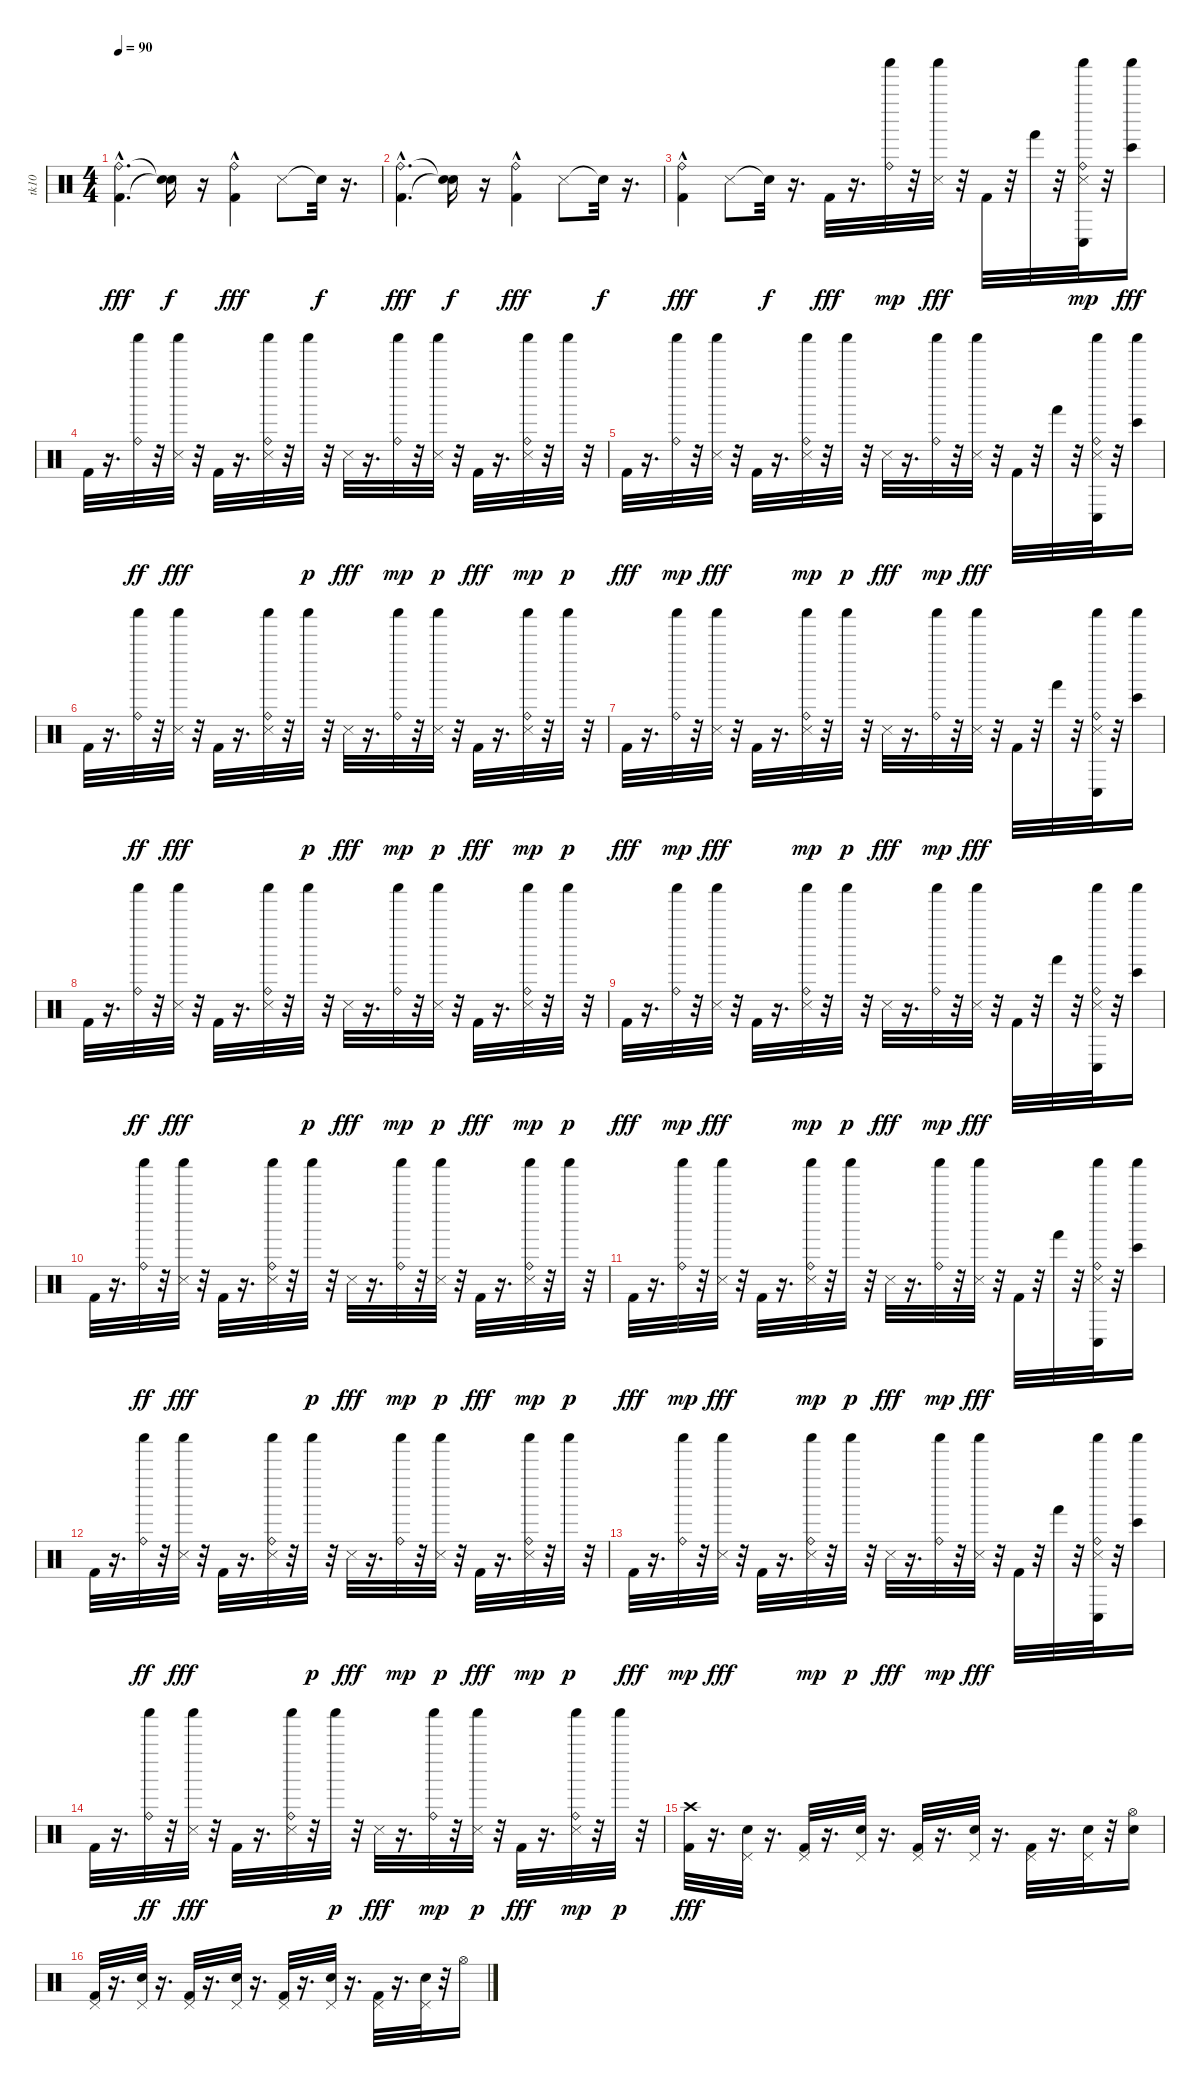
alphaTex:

\track ("tk10" "tk10") {instrument percussion}
\staff {score}
\articulation defaults
\ts (4 4)
\tempo 90
\clef neutral
\ks c
("Kick (hit) 2"{hac} "Ride (bell)"{hac}).4{d dy fff} ("Snare (hit)"{t} "Snare (hit)"{t}).16{dy f} r.16 ("Ride (bell)"{hac} "Kick (hit) 2").4{dy fff} "Snare (side stick) 3".8 "Snare (hit)"{t}.32{dy f} r.16{d} |
("Kick (hit) 2"{hac} "Ride (bell)"{hac}).4{d dy fff} ("Snare (hit)"{t} "Snare (hit)"{t}).16{dy f} r.16 ("Ride (bell)"{hac} "Kick (hit) 2").4{dy fff} "Snare (side stick) 3".8 "Snare (hit)"{t}.32{dy f} r.16{d} |
("Kick (hit) 2" "Ride (bell)"{hac}).4{dy fff} "Snare (side stick) 3".8 "Snare (hit)"{t}.32{dy f} r.16{d} "Kick (hit) 2".32{dy fff} r.16{d} ("Ride (bell)" "Shaker (hit)").32{dy mp} r.32 ("Shaker (hit)" "Snare (side stick) 3").32{dy fff} r.32 "Kick (hit) 2".32 r.32 "Hand (hit)".32 r.32 ("Ride (bell)" "Snare (side stick) 3" "Conga low (hit)" "Shaker (hit)").32{dy mp} r.32 ("Shaker (hit)" "Bongo High (hit)").16{dy fff} |
"Kick (hit) 2".32 r.16{d} ("Shaker (hit)" "Ride (bell)").32{dy ff} r.32 ("Shaker (hit)" "Snare (side stick) 3").32{dy fff} r.32 "Kick (hit) 2".32 r.16{d} ("Shaker (hit)" "Ride (bell)" "Snare (side stick) 3").32 r.32 "Shaker (hit)".32{dy p} r.32 "Snare (side stick) 3".32{dy fff} r.16{d} ("Ride (bell)" "Shaker (hit)").32{dy mp} r.32 ("Snare (side stick) 3" "Shaker (hit)").32{dy p} r.32 "Kick (hit) 2".32{dy fff} r.16{d} ("Ride (bell)" "Snare (side stick) 3" "Shaker (hit)").32{dy mp} r.32 "Shaker (hit)".32{dy p} r.32 |
"Kick (hit) 2".32{dy fff} r.16{d} ("Ride (bell)" "Shaker (hit)").32{dy mp} r.32 ("Shaker (hit)" "Snare (side stick) 3").32{dy fff} r.32 "Kick (hit) 2".32 r.16{d} ("Ride (bell)" "Snare (side stick) 3" "Shaker (hit)").32{dy mp} r.32 "Shaker (hit)".32{dy p} r.32 "Snare (side stick) 3".32{dy fff} r.16{d} ("Ride (bell)" "Shaker (hit)").32{dy mp} r.32 ("Shaker (hit)" "Snare (side stick) 3").32{dy fff} r.32 "Kick (hit) 2".32 r.32 "Hand (hit)".32 r.32 ("Shaker (hit)" "Ride (bell)" "Snare (side stick) 3" "Conga low (hit)").32 r.32 ("Shaker (hit)" "Bongo High (hit)").16 |
"Kick (hit) 2".32 r.16{d} ("Shaker (hit)" "Ride (bell)").32{dy ff} r.32 ("Shaker (hit)" "Snare (side stick) 3").32{dy fff} r.32 "Kick (hit) 2".32 r.16{d} ("Shaker (hit)" "Ride (bell)" "Snare (side stick) 3").32 r.32 "Shaker (hit)".32{dy p} r.32 "Snare (side stick) 3".32{dy fff} r.16{d} ("Ride (bell)" "Shaker (hit)").32{dy mp} r.32 ("Snare (side stick) 3" "Shaker (hit)").32{dy p} r.32 "Kick (hit) 2".32{dy fff} r.16{d} ("Ride (bell)" "Snare (side stick) 3" "Shaker (hit)").32{dy mp} r.32 "Shaker (hit)".32{dy p} r.32 |
"Kick (hit) 2".32{dy fff} r.16{d} ("Ride (bell)" "Shaker (hit)").32{dy mp} r.32 ("Shaker (hit)" "Snare (side stick) 3").32{dy fff} r.32 "Kick (hit) 2".32 r.16{d} ("Ride (bell)" "Snare (side stick) 3" "Shaker (hit)").32{dy mp} r.32 "Shaker (hit)".32{dy p} r.32 "Snare (side stick) 3".32{dy fff} r.16{d} ("Ride (bell)" "Shaker (hit)").32{dy mp} r.32 ("Shaker (hit)" "Snare (side stick) 3").32{dy fff} r.32 "Kick (hit) 2".32 r.32 "Hand (hit)".32 r.32 ("Shaker (hit)" "Ride (bell)" "Snare (side stick) 3" "Conga low (hit)").32 r.32 ("Shaker (hit)" "Bongo High (hit)").16 |
"Kick (hit) 2".32 r.16{d} ("Shaker (hit)" "Ride (bell)").32{dy ff} r.32 ("Shaker (hit)" "Snare (side stick) 3").32{dy fff} r.32 "Kick (hit) 2".32 r.16{d} ("Shaker (hit)" "Ride (bell)" "Snare (side stick) 3").32 r.32 "Shaker (hit)".32{dy p} r.32 "Snare (side stick) 3".32{dy fff} r.16{d} ("Ride (bell)" "Shaker (hit)").32{dy mp} r.32 ("Snare (side stick) 3" "Shaker (hit)").32{dy p} r.32 "Kick (hit) 2".32{dy fff} r.16{d} ("Ride (bell)" "Snare (side stick) 3" "Shaker (hit)").32{dy mp} r.32 "Shaker (hit)".32{dy p} r.32 |
"Kick (hit) 2".32{dy fff} r.16{d} ("Ride (bell)" "Shaker (hit)").32{dy mp} r.32 ("Shaker (hit)" "Snare (side stick) 3").32{dy fff} r.32 "Kick (hit) 2".32 r.16{d} ("Ride (bell)" "Snare (side stick) 3" "Shaker (hit)").32{dy mp} r.32 "Shaker (hit)".32{dy p} r.32 "Snare (side stick) 3".32{dy fff} r.16{d} ("Ride (bell)" "Shaker (hit)").32{dy mp} r.32 ("Shaker (hit)" "Snare (side stick) 3").32{dy fff} r.32 "Kick (hit) 2".32 r.32 "Hand (hit)".32 r.32 ("Shaker (hit)" "Ride (bell)" "Snare (side stick) 3" "Conga low (hit)").32 r.32 ("Shaker (hit)" "Bongo High (hit)").16 |
"Kick (hit) 2".32 r.16{d} ("Shaker (hit)" "Ride (bell)").32{dy ff} r.32 ("Shaker (hit)" "Snare (side stick) 3").32{dy fff} r.32 "Kick (hit) 2".32 r.16{d} ("Shaker (hit)" "Ride (bell)" "Snare (side stick) 3").32 r.32 "Shaker (hit)".32{dy p} r.32 "Snare (side stick) 3".32{dy fff} r.16{d} ("Ride (bell)" "Shaker (hit)").32{dy mp} r.32 ("Snare (side stick) 3" "Shaker (hit)").32{dy p} r.32 "Kick (hit) 2".32{dy fff} r.16{d} ("Ride (bell)" "Snare (side stick) 3" "Shaker (hit)").32{dy mp} r.32 "Shaker (hit)".32{dy p} r.32 |
"Kick (hit) 2".32{dy fff} r.16{d} ("Ride (bell)" "Shaker (hit)").32{dy mp} r.32 ("Shaker (hit)" "Snare (side stick) 3").32{dy fff} r.32 "Kick (hit) 2".32 r.16{d} ("Ride (bell)" "Snare (side stick) 3" "Shaker (hit)").32{dy mp} r.32 "Shaker (hit)".32{dy p} r.32 "Snare (side stick) 3".32{dy fff} r.16{d} ("Ride (bell)" "Shaker (hit)").32{dy mp} r.32 ("Shaker (hit)" "Snare (side stick) 3").32{dy fff} r.32 "Kick (hit) 2".32 r.32 "Hand (hit)".32 r.32 ("Shaker (hit)" "Ride (bell)" "Snare (side stick) 3" "Conga low (hit)").32 r.32 ("Shaker (hit)" "Bongo High (hit)").16 |
"Kick (hit) 2".32 r.16{d} ("Shaker (hit)" "Ride (bell)").32{dy ff} r.32 ("Shaker (hit)" "Snare (side stick) 3").32{dy fff} r.32 "Kick (hit) 2".32 r.16{d} ("Shaker (hit)" "Ride (bell)" "Snare (side stick) 3").32 r.32 "Shaker (hit)".32{dy p} r.32 "Snare (side stick) 3".32{dy fff} r.16{d} ("Ride (bell)" "Shaker (hit)").32{dy mp} r.32 ("Snare (side stick) 3" "Shaker (hit)").32{dy p} r.32 "Kick (hit) 2".32{dy fff} r.16{d} ("Ride (bell)" "Snare (side stick) 3" "Shaker (hit)").32{dy mp} r.32 "Shaker (hit)".32{dy p} r.32 |
"Kick (hit) 2".32{dy fff} r.16{d} ("Ride (bell)" "Shaker (hit)").32{dy mp} r.32 ("Shaker (hit)" "Snare (side stick) 3").32{dy fff} r.32 "Kick (hit) 2".32 r.16{d} ("Ride (bell)" "Snare (side stick) 3" "Shaker (hit)").32{dy mp} r.32 "Shaker (hit)".32{dy p} r.32 "Snare (side stick) 3".32{dy fff} r.16{d} ("Ride (bell)" "Shaker (hit)").32{dy mp} r.32 ("Shaker (hit)" "Snare (side stick) 3").32{dy fff} r.32 "Kick (hit) 2".32 r.32 "Hand (hit)".32 r.32 ("Shaker (hit)" "Ride (bell)" "Snare (side stick) 3" "Conga low (hit)").32 r.32 ("Shaker (hit)" "Bongo High (hit)").16 |
"Kick (hit) 2".32 r.16{d} ("Shaker (hit)" "Ride (bell)").32{dy ff} r.32 ("Shaker (hit)" "Snare (side stick) 3").32{dy fff} r.32 "Kick (hit) 2".32 r.16{d} ("Shaker (hit)" "Ride (bell)" "Snare (side stick) 3").32 r.32 "Shaker (hit)".32{dy p} r.32 "Snare (side stick) 3".32{dy fff} r.16{d} ("Ride (bell)" "Shaker (hit)").32{dy mp} r.32 ("Snare (side stick) 3" "Shaker (hit)").32{dy p} r.32 "Kick (hit) 2".32{dy fff} r.16{d} ("Ride (bell)" "Snare (side stick) 3" "Shaker (hit)").32{dy mp} r.32 "Shaker (hit)".32{dy p} r.32 |
("Kick (hit) 2" "Crash high (hit)").32{dy fff} r.16{d} ("Electric Snare (hit)" "Pedal Hi-Hat (hit)").32 r.16{d} ("Kick (hit) 2" "Pedal Hi-Hat (hit)").32 r.16{d} ("Electric Snare (hit)" "Pedal Hi-Hat (hit)").32 r.16{d} ("Pedal Hi-Hat (hit)" "Kick (hit) 2").32 r.16{d} ("Pedal Hi-Hat (hit)" "Electric Snare (hit)").32 r.16{d} ("Pedal Hi-Hat (hit)" "Kick (hit) 2").32 r.16{d} ("Electric Snare (hit)" "Pedal Hi-Hat (hit)").32 r.32 ("Electric Snare (hit)" "Hi-Hat (open)").16 |
("Kick (hit) 2" "Pedal Hi-Hat (hit)").32 r.16{d} ("Electric Snare (hit)" "Pedal Hi-Hat (hit)").32 r.16{d} ("Pedal Hi-Hat (hit)" "Kick (hit) 2").32 r.16{d} ("Pedal Hi-Hat (hit)" "Electric Snare (hit)").32 r.16{d} ("Pedal Hi-Hat (hit)" "Kick (hit) 2").32 r.16{d} ("Pedal Hi-Hat (hit)" "Electric Snare (hit)").32 r.16{d} ("Kick (hit) 2" "Pedal Hi-Hat (hit)").32 r.16{d} ("Electric Snare (hit)" "Pedal Hi-Hat (hit)").32 r.32 "Hi-Hat (open)".16
